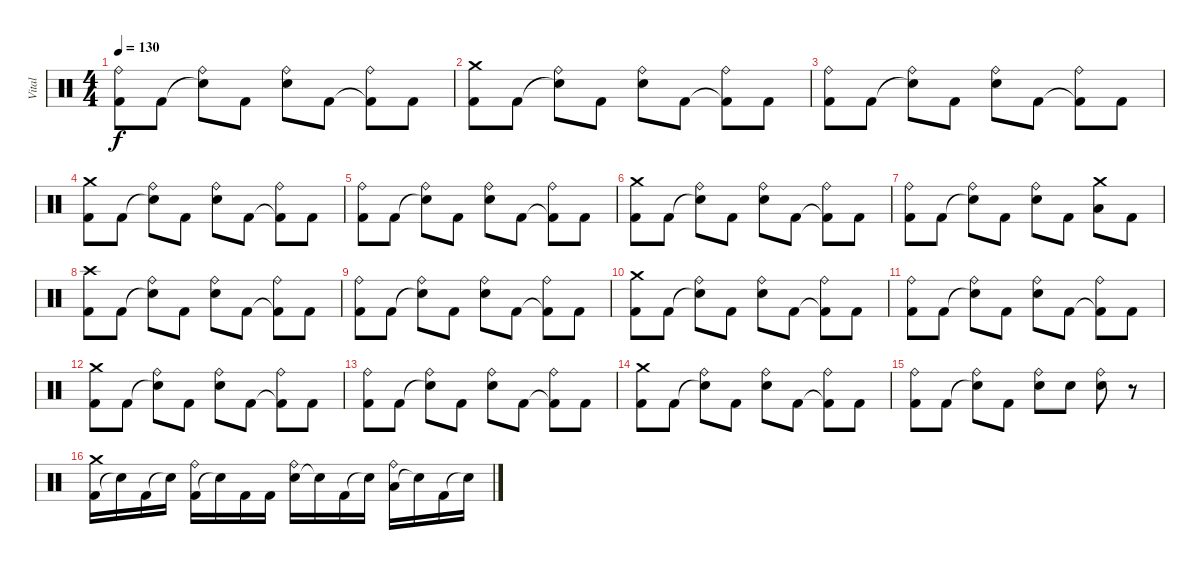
\track ("Vital" "Vital") {instrument percussion}
\staff {score}
\articulation defaults
\ts (4 4)
\tempo 130
\clef neutral
\ks c
("Kick (hit) 2" "Ride (bell)").8{dy f} "Kick (hit) 2".8 ("Snare (hit)"{t} "Ride (bell)").8 "Kick (hit) 2".8 ("Snare (hit) 2" "Ride (bell)").8 "Kick (hit) 2".8 ("Kick (hit) 2"{t} "Ride (bell)").8 "Kick (hit) 2".8 |
("Kick (hit) 2" "Crash medium (hit)").8 "Kick (hit) 2".8 ("Snare (hit)"{t} "Ride (bell)").8 "Kick (hit) 2".8 ("Snare (hit) 2" "Ride (bell)").8 "Kick (hit) 2".8 ("Kick (hit) 2"{t} "Ride (bell)").8 "Kick (hit) 2".8 |
("Kick (hit) 2" "Ride (bell)").8 "Kick (hit) 2".8 ("Snare (hit)"{t} "Ride (bell)").8 "Kick (hit) 2".8 ("Snare (hit) 2" "Ride (bell)").8 "Kick (hit) 2".8 ("Kick (hit) 2"{t} "Ride (bell)").8 "Kick (hit) 2".8 |
("Kick (hit) 2" "Crash medium (hit)").8 "Kick (hit) 2".8 ("Snare (hit)"{t} "Ride (bell)").8 "Kick (hit) 2".8 ("Snare (hit) 2" "Ride (bell)").8 "Kick (hit) 2".8 ("Kick (hit) 2"{t} "Ride (bell)").8 "Kick (hit) 2".8 |
("Kick (hit) 2" "Ride (bell)").8 "Kick (hit) 2".8 ("Snare (hit)"{t} "Ride (bell)").8 "Kick (hit) 2".8 ("Snare (hit) 2" "Ride (bell)").8 "Kick (hit) 2".8 ("Kick (hit) 2"{t} "Ride (bell)").8 "Kick (hit) 2".8 |
("Kick (hit) 2" "Crash medium (hit)").8 "Kick (hit) 2".8 ("Snare (hit)"{t} "Ride (bell)").8 "Kick (hit) 2".8 ("Snare (hit) 2" "Ride (bell)").8 "Kick (hit) 2".8 ("Kick (hit) 2"{t} "Ride (bell)").8 "Kick (hit) 2".8 |
("Kick (hit) 2" "Ride (bell)").8 "Kick (hit) 2".8 ("Snare (hit)"{t} "Ride (bell)").8 "Kick (hit) 2".8 ("Snare (hit) 2" "Ride (bell)").8 "Kick (hit) 2".8 ("Low Floor Tom (hit)" "Crash medium (hit)").8 "Kick (hit) 2".8 |
("Kick (hit) 2" "Crash high (hit)").8 "Kick (hit) 2".8 ("Snare (hit)"{t} "Ride (bell)").8 "Kick (hit) 2".8 ("Snare (hit) 2" "Ride (bell)").8 "Kick (hit) 2".8 ("Kick (hit) 2"{t} "Ride (bell)").8 "Kick (hit) 2".8 |
("Kick (hit) 2" "Ride (bell)").8 "Kick (hit) 2".8 ("Snare (hit)"{t} "Ride (bell)").8 "Kick (hit) 2".8 ("Snare (hit) 2" "Ride (bell)").8 "Kick (hit) 2".8 ("Kick (hit) 2"{t} "Ride (bell)").8 "Kick (hit) 2".8 |
("Kick (hit) 2" "Crash medium (hit)").8 "Kick (hit) 2".8 ("Snare (hit)"{t} "Ride (bell)").8 "Kick (hit) 2".8 ("Snare (hit) 2" "Ride (bell)").8 "Kick (hit) 2".8 ("Kick (hit) 2"{t} "Ride (bell)").8 "Kick (hit) 2".8 |
("Kick (hit) 2" "Ride (bell)").8 "Kick (hit) 2".8 ("Snare (hit)"{t} "Ride (bell)").8 "Kick (hit) 2".8 ("Snare (hit) 2" "Ride (bell)").8 "Kick (hit) 2".8 ("Kick (hit) 2"{t} "Ride (bell)").8 "Kick (hit) 2".8 |
("Kick (hit) 2" "Crash medium (hit)").8 "Kick (hit) 2".8 ("Snare (hit)"{t} "Ride (bell)").8 "Kick (hit) 2".8 ("Snare (hit) 2" "Ride (bell)").8 "Kick (hit) 2".8 ("Kick (hit) 2"{t} "Ride (bell)").8 "Kick (hit) 2".8 |
("Kick (hit) 2" "Ride (bell)").8 "Kick (hit) 2".8 ("Snare (hit)"{t} "Ride (bell)").8 "Kick (hit) 2".8 ("Snare (hit) 2" "Ride (bell)").8 "Kick (hit) 2".8 ("Kick (hit) 2"{t} "Ride (bell)").8 "Kick (hit) 2".8 |
("Kick (hit) 2" "Crash medium (hit)").8 "Kick (hit) 2".8 ("Snare (hit)"{t} "Ride (bell)").8 "Kick (hit) 2".8 ("Snare (hit) 2" "Ride (bell)").8 "Kick (hit) 2".8 ("Kick (hit) 2"{t} "Ride (bell)").8 "Kick (hit) 2".8 |
("Kick (hit) 2" "Ride (bell)").8 "Kick (hit) 2".8 ("Snare (hit)"{t} "Ride (bell)").8 "Kick (hit) 2".8 ("Snare (hit) 2" "Ride (bell)").8 "Snare (hit) 2".8 ("Snare (hit) 2" "Ride (bell)").8 r.8 |
("Kick (hit) 2" "Crash medium (hit)").16 "Snare (hit)"{t}.16 "Kick (hit) 2".16 "Snare (hit)"{t}.16 ("Kick (hit) 2" "Ride (bell)").16 "Snare (hit)"{t}.16 "Kick (hit) 2".16 "Kick (hit) 2".16 ("Snare (hit) 2" "Ride (bell)").16 "Snare (hit)"{t}.16 "Kick (hit) 2".16 "Snare (hit)"{t}.16 ("Low Floor Tom (hit)" "Ride (bell)").16 "Snare (hit)"{t}.16 "Kick (hit) 2".16 "Snare (hit)"{t}.16
